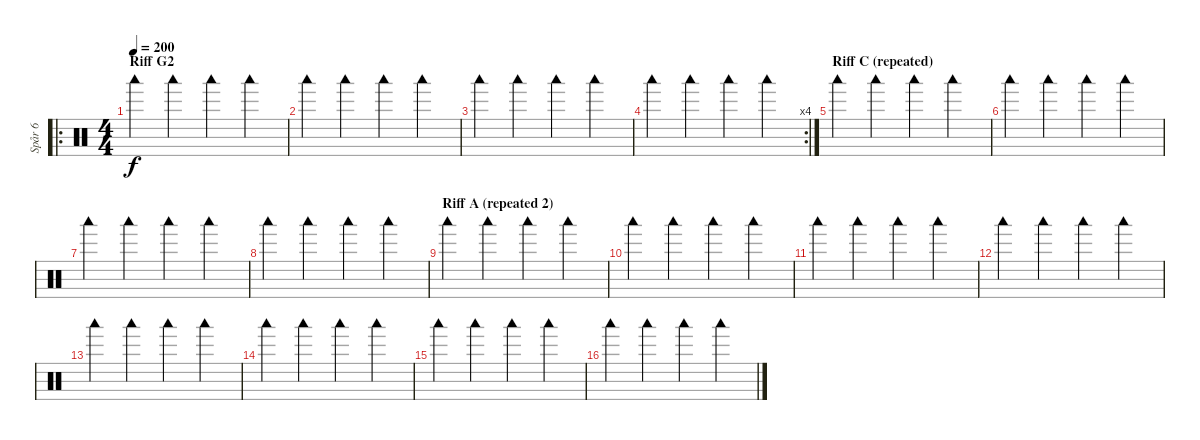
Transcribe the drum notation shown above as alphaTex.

\track ("Spår 6" "Spår 6") {instrument percussion}
\staff {score}
\articulation defaults
\ro
\ts (4 4)
\section ("" "Riff G2")
\tempo 200
\clef neutral
\ks c "Woodblock low (hit)".4{dy f} "Woodblock low (hit)".4 "Woodblock low (hit)".4 "Woodblock low (hit)".4
|
"Woodblock low (hit)".4 "Woodblock low (hit)".4 "Woodblock low (hit)".4 "Woodblock low (hit)".4 |
"Woodblock low (hit)".4 "Woodblock low (hit)".4 "Woodblock low (hit)".4 "Woodblock low (hit)".4 |
\rc 4 "Woodblock low (hit)".4 "Woodblock low (hit)".4 "Woodblock low (hit)".4 "Woodblock low (hit)".4
|
\section ("" "Riff C (repeated)")
"Woodblock low (hit)".4 "Woodblock low (hit)".4 "Woodblock low (hit)".4 "Woodblock low (hit)".4 |
"Woodblock low (hit)".4 "Woodblock low (hit)".4 "Woodblock low (hit)".4 "Woodblock low (hit)".4 |
"Woodblock low (hit)".4 "Woodblock low (hit)".4 "Woodblock low (hit)".4 "Woodblock low (hit)".4 |
"Woodblock low (hit)".4 "Woodblock low (hit)".4 "Woodblock low (hit)".4 "Woodblock low (hit)".4 |
\section ("" "Riff A (repeated 2)")
"Woodblock low (hit)".4 "Woodblock low (hit)".4 "Woodblock low (hit)".4 "Woodblock low (hit)".4 |
"Woodblock low (hit)".4 "Woodblock low (hit)".4 "Woodblock low (hit)".4 "Woodblock low (hit)".4 |
"Woodblock low (hit)".4 "Woodblock low (hit)".4 "Woodblock low (hit)".4 "Woodblock low (hit)".4 |
"Woodblock low (hit)".4 "Woodblock low (hit)".4 "Woodblock low (hit)".4 "Woodblock low (hit)".4 |
"Woodblock low (hit)".4 "Woodblock low (hit)".4 "Woodblock low (hit)".4 "Woodblock low (hit)".4 |
"Woodblock low (hit)".4 "Woodblock low (hit)".4 "Woodblock low (hit)".4 "Woodblock low (hit)".4 |
"Woodblock low (hit)".4 "Woodblock low (hit)".4 "Woodblock low (hit)".4 "Woodblock low (hit)".4 |
"Woodblock low (hit)".4 "Woodblock low (hit)".4 "Woodblock low (hit)".4 "Woodblock low (hit)".4
